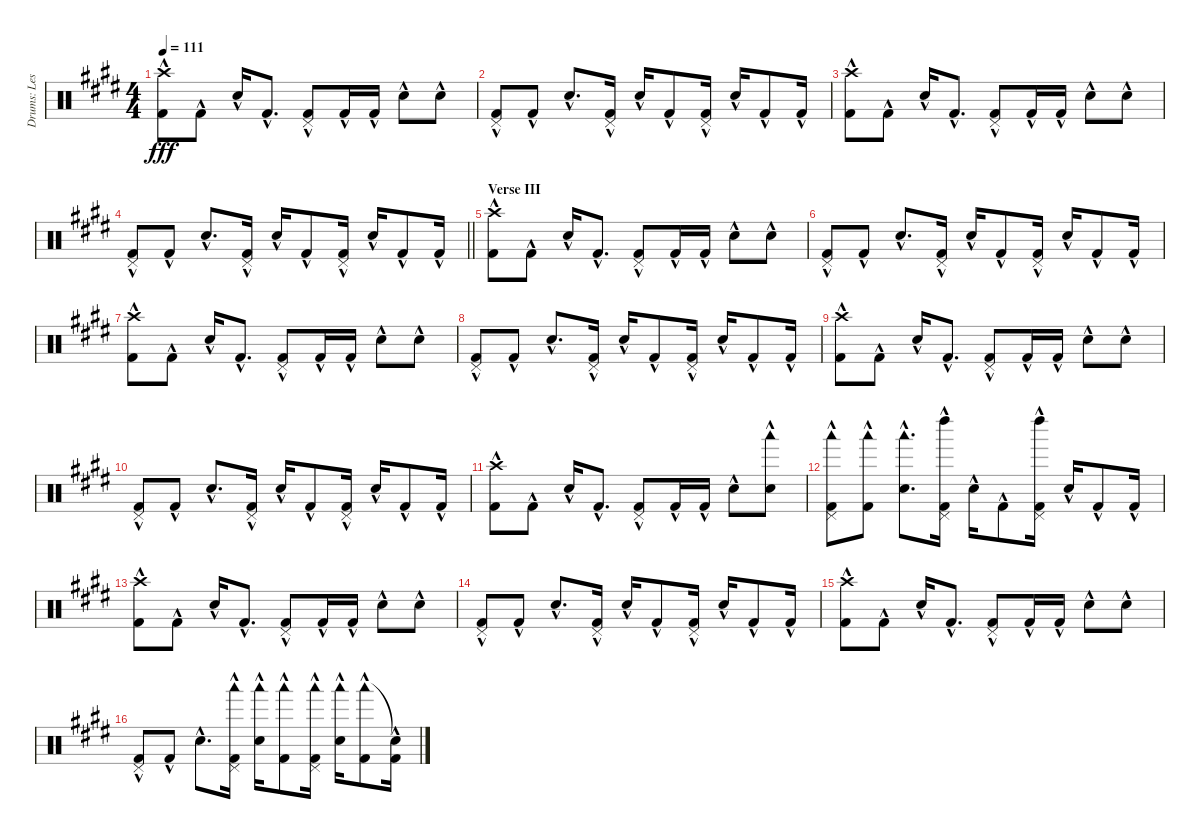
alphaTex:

\track ("Drums: Les" "Drums: Les") {instrument percussion}
\staff {score}
\articulation defaults
\ts (4 4)
\tempo 111
\clef neutral
\ks e
("Crash high (hit)"{hac} "Kick (hit) 2"{hac}).8{dy fff} "Kick (hit) 2"{hac}.8 "Electric Snare (hit)"{hac}.16 "Kick (hit) 2"{hac}.8{d} ("Pedal Hi-Hat (hit)"{hac} "Kick (hit) 2"{hac}).8 "Kick (hit) 2"{hac}.16 "Kick (hit) 2"{hac}.16 "Electric Snare (hit)"{hac}.8 "Electric Snare (hit)"{hac}.8 |
("Pedal Hi-Hat (hit)"{hac} "Kick (hit) 2"{hac}).8 "Kick (hit) 2"{hac}.8 "Electric Snare (hit)"{hac}.8{d} ("Pedal Hi-Hat (hit)"{hac} "Kick (hit) 2"{hac}).16 "Electric Snare (hit)"{hac}.16 "Kick (hit) 2"{hac}.8 ("Pedal Hi-Hat (hit)"{hac} "Kick (hit) 2"{hac}).16 "Electric Snare (hit)"{hac}.16 "Kick (hit) 2"{hac}.8 "Kick (hit) 2"{hac}.16 |
("Crash high (hit)"{hac} "Kick (hit) 2"{hac}).8 "Kick (hit) 2"{hac}.8 "Electric Snare (hit)"{hac}.16 "Kick (hit) 2"{hac}.8{d} ("Pedal Hi-Hat (hit)"{hac} "Kick (hit) 2"{hac}).8 "Kick (hit) 2"{hac}.16 "Kick (hit) 2"{hac}.16 "Electric Snare (hit)"{hac}.8 "Electric Snare (hit)"{hac}.8 |
\barLineRight lightlight
("Pedal Hi-Hat (hit)"{hac} "Kick (hit) 2"{hac}).8 "Kick (hit) 2"{hac}.8 "Electric Snare (hit)"{hac}.8{d} ("Pedal Hi-Hat (hit)"{hac} "Kick (hit) 2"{hac}).16 "Electric Snare (hit)"{hac}.16 "Kick (hit) 2"{hac}.8 ("Pedal Hi-Hat (hit)"{hac} "Kick (hit) 2"{hac}).16 "Electric Snare (hit)"{hac}.16 "Kick (hit) 2"{hac}.8 "Kick (hit) 2"{hac}.16 |
\section ("" "Verse III")
("Crash high (hit)"{hac} "Kick (hit) 2"{hac}).8 "Kick (hit) 2"{hac}.8 "Electric Snare (hit)"{hac}.16 "Kick (hit) 2"{hac}.8{d} ("Pedal Hi-Hat (hit)"{hac} "Kick (hit) 2"{hac}).8 "Kick (hit) 2"{hac}.16 "Kick (hit) 2"{hac}.16 "Electric Snare (hit)"{hac}.8 "Electric Snare (hit)"{hac}.8 |
("Pedal Hi-Hat (hit)"{hac} "Kick (hit) 2"{hac}).8 "Kick (hit) 2"{hac}.8 "Electric Snare (hit)"{hac}.8{d} ("Pedal Hi-Hat (hit)"{hac} "Kick (hit) 2"{hac}).16 "Electric Snare (hit)"{hac}.16 "Kick (hit) 2"{hac}.8 ("Pedal Hi-Hat (hit)"{hac} "Kick (hit) 2"{hac}).16 "Electric Snare (hit)"{hac}.16 "Kick (hit) 2"{hac}.8 "Kick (hit) 2"{hac}.16 |
("Crash high (hit)"{hac} "Kick (hit) 2"{hac}).8 "Kick (hit) 2"{hac}.8 "Electric Snare (hit)"{hac}.16 "Kick (hit) 2"{hac}.8{d} ("Pedal Hi-Hat (hit)"{hac} "Kick (hit) 2"{hac}).8 "Kick (hit) 2"{hac}.16 "Kick (hit) 2"{hac}.16 "Electric Snare (hit)"{hac}.8 "Electric Snare (hit)"{hac}.8 |
("Pedal Hi-Hat (hit)"{hac} "Kick (hit) 2"{hac}).8 "Kick (hit) 2"{hac}.8 "Electric Snare (hit)"{hac}.8{d} ("Pedal Hi-Hat (hit)"{hac} "Kick (hit) 2"{hac}).16 "Electric Snare (hit)"{hac}.16 "Kick (hit) 2"{hac}.8 ("Pedal Hi-Hat (hit)"{hac} "Kick (hit) 2"{hac}).16 "Electric Snare (hit)"{hac}.16 "Kick (hit) 2"{hac}.8 "Kick (hit) 2"{hac}.16 |
("Crash high (hit)"{hac} "Kick (hit) 2"{hac}).8 "Kick (hit) 2"{hac}.8 "Electric Snare (hit)"{hac}.16 "Kick (hit) 2"{hac}.8{d} ("Pedal Hi-Hat (hit)"{hac} "Kick (hit) 2"{hac}).8 "Kick (hit) 2"{hac}.16 "Kick (hit) 2"{hac}.16 "Electric Snare (hit)"{hac}.8 "Electric Snare (hit)"{hac}.8 |
("Pedal Hi-Hat (hit)"{hac} "Kick (hit) 2"{hac}).8 "Kick (hit) 2"{hac}.8 "Electric Snare (hit)"{hac}.8{d} ("Pedal Hi-Hat (hit)"{hac} "Kick (hit) 2"{hac}).16 "Electric Snare (hit)"{hac}.16 "Kick (hit) 2"{hac}.8 ("Pedal Hi-Hat (hit)"{hac} "Kick (hit) 2"{hac}).16 "Electric Snare (hit)"{hac}.16 "Kick (hit) 2"{hac}.8 "Kick (hit) 2"{hac}.16 |
("Crash high (hit)"{hac} "Kick (hit) 2"{hac}).8 "Kick (hit) 2"{hac}.8 "Electric Snare (hit)"{hac}.16 "Kick (hit) 2"{hac}.8{d} ("Pedal Hi-Hat (hit)"{hac} "Kick (hit) 2"{hac}).8 "Kick (hit) 2"{hac}.16 "Kick (hit) 2"{hac}.16 "Electric Snare (hit)"{hac}.8 ("Woodblock low (hit)"{hac} "Electric Snare (hit)"{hac}).8 |
("Woodblock low (hit)"{hac} "Pedal Hi-Hat (hit)"{hac} "Kick (hit) 2"{hac}).8 ("Woodblock low (hit)"{hac} "Kick (hit) 2"{hac}).8 ("Woodblock low (hit)"{hac} "Electric Snare (hit)"{hac}).8{d} ("Left Maraca (hit)"{hac} "Pedal Hi-Hat (hit)"{hac} "Kick (hit) 2"{hac}).16 "Electric Snare (hit)"{hac}.16 "Kick (hit) 2"{hac}.8 ("Left Maraca (hit)"{hac} "Pedal Hi-Hat (hit)"{hac} "Kick (hit) 2"{hac}).16 "Electric Snare (hit)"{hac}.16 "Kick (hit) 2"{hac}.8 "Kick (hit) 2"{hac}.16 |
("Crash high (hit)"{hac} "Kick (hit) 2"{hac}).8 "Kick (hit) 2"{hac}.8 "Electric Snare (hit)"{hac}.16 "Kick (hit) 2"{hac}.8{d} ("Pedal Hi-Hat (hit)"{hac} "Kick (hit) 2"{hac}).8 "Kick (hit) 2"{hac}.16 "Kick (hit) 2"{hac}.16 "Electric Snare (hit)"{hac}.8 "Electric Snare (hit)"{hac}.8 |
("Pedal Hi-Hat (hit)"{hac} "Kick (hit) 2"{hac}).8 "Kick (hit) 2"{hac}.8 "Electric Snare (hit)"{hac}.8{d} ("Pedal Hi-Hat (hit)"{hac} "Kick (hit) 2"{hac}).16 "Electric Snare (hit)"{hac}.16 "Kick (hit) 2"{hac}.8 ("Pedal Hi-Hat (hit)"{hac} "Kick (hit) 2"{hac}).16 "Electric Snare (hit)"{hac}.16 "Kick (hit) 2"{hac}.8 "Kick (hit) 2"{hac}.16 |
("Crash high (hit)"{hac} "Kick (hit) 2"{hac}).8 "Kick (hit) 2"{hac}.8 "Electric Snare (hit)"{hac}.16 "Kick (hit) 2"{hac}.8{d} ("Pedal Hi-Hat (hit)"{hac} "Kick (hit) 2"{hac}).8 "Kick (hit) 2"{hac}.16 "Kick (hit) 2"{hac}.16 "Electric Snare (hit)"{hac}.8 "Electric Snare (hit)"{hac}.8 |
("Pedal Hi-Hat (hit)"{hac} "Kick (hit) 2"{hac}).8 "Kick (hit) 2"{hac}.8 "Electric Snare (hit)"{hac}.8{d} ("Woodblock low (hit)"{hac} "Pedal Hi-Hat (hit)"{hac} "Kick (hit) 2"{hac}).16 ("Woodblock low (hit)"{hac} "Electric Snare (hit)"{hac}).16 ("Woodblock low (hit)"{hac} "Kick (hit) 2"{hac}).8 ("Woodblock low (hit)"{hac} "Pedal Hi-Hat (hit)"{hac} "Kick (hit) 2"{hac}).16 ("Woodblock low (hit)"{hac} "Electric Snare (hit)"{hac}).16 ("Woodblock low (hit)"{hac} "Kick (hit) 2"{hac}).8 ("Snare (hit)"{t} "Kick (hit) 2"{hac}).16
